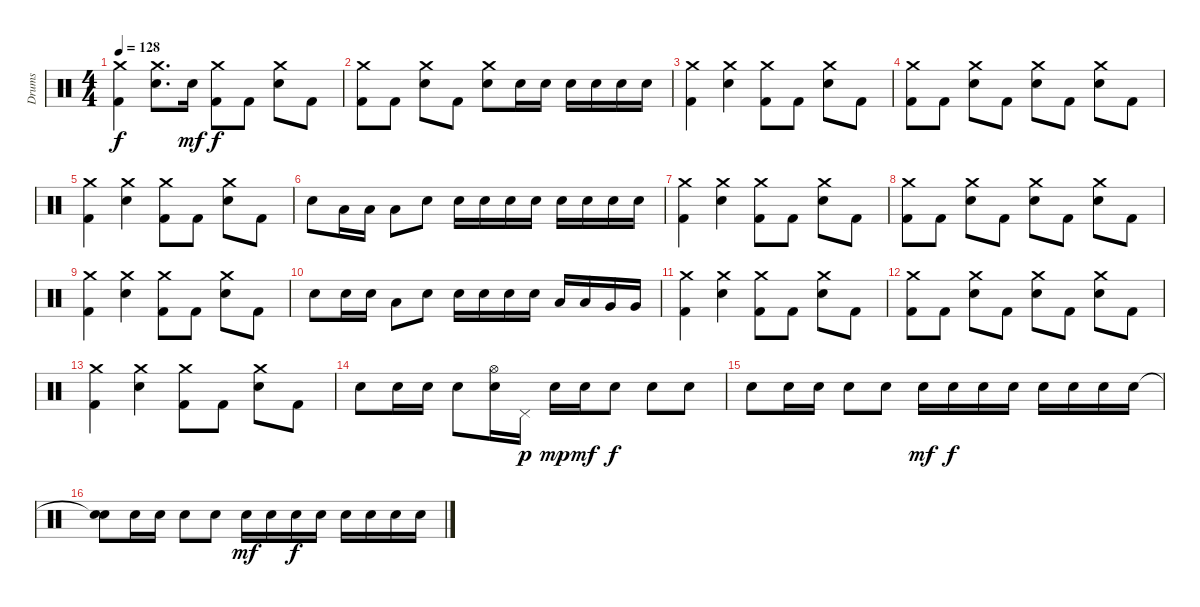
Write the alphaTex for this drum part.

\track ("Drums" "Drums") {instrument percussion}
\staff {score}
\articulation defaults
\ts (4 4)
\tempo 128
\clef neutral
\ks c
("Crash medium (hit)" "Kick (hit) 2").4{dy f} ("Crash medium (hit)" "Snare (hit) 2").8{d} "Snare (hit) 2".16{dy mf} ("Crash medium (hit)" "Kick (hit) 2").8{dy f} "Kick (hit) 2".8 ("Crash medium (hit)" "Snare (hit) 2").8 "Kick (hit) 2".8 |
("Crash medium (hit)" "Kick (hit) 2").8 "Kick (hit) 2".8 ("Crash medium (hit)" "Snare (hit) 2").8 "Kick (hit) 2".8 ("Crash medium (hit)" "Snare (hit) 2").8 "Snare (hit) 2".16 "Snare (hit) 2".16 "Snare (hit) 2".16 "Snare (hit) 2".16 "Snare (hit) 2".16 "Snare (hit) 2".16 |
("Crash medium (hit)" "Kick (hit) 2").4 ("Crash medium (hit)" "Snare (hit) 2").4 ("Crash medium (hit)" "Kick (hit) 2").8 "Kick (hit) 2".8 ("Crash medium (hit)" "Snare (hit) 2").8 "Kick (hit) 2".8 |
("Crash medium (hit)" "Kick (hit) 2").8 "Kick (hit) 2".8 ("Crash medium (hit)" "Snare (hit) 2").8 "Kick (hit) 2".8 ("Crash medium (hit)" "Snare (hit) 2").8 "Kick (hit) 2".8 ("Crash medium (hit)" "Snare (hit) 2").8 "Kick (hit) 2".8 |
("Crash medium (hit)" "Kick (hit) 2").4 ("Crash medium (hit)" "Snare (hit) 2").4 ("Crash medium (hit)" "Kick (hit) 2").8 "Kick (hit) 2".8 ("Crash medium (hit)" "Snare (hit) 2").8 "Kick (hit) 2".8 |
"Snare (hit) 2".8 "Low Tom (hit)".16 "Low Tom (hit)".16 "Low Tom (hit)".8 "Snare (hit) 2".8 "Snare (hit) 2".16 "Snare (hit) 2".16 "Snare (hit) 2".16 "Snare (hit) 2".16 "Snare (hit) 2".16 "Snare (hit) 2".16 "Snare (hit) 2".16 "Snare (hit) 2".16 |
("Crash medium (hit)" "Kick (hit) 2").4 ("Crash medium (hit)" "Snare (hit) 2").4 ("Crash medium (hit)" "Kick (hit) 2").8 "Kick (hit) 2".8 ("Crash medium (hit)" "Snare (hit) 2").8 "Kick (hit) 2".8 |
("Crash medium (hit)" "Kick (hit) 2").8 "Kick (hit) 2".8 ("Crash medium (hit)" "Snare (hit) 2").8 "Kick (hit) 2".8 ("Crash medium (hit)" "Snare (hit) 2").8 "Kick (hit) 2".8 ("Crash medium (hit)" "Snare (hit) 2").8 "Kick (hit) 2".8 |
("Crash medium (hit)" "Kick (hit) 2").4 ("Crash medium (hit)" "Snare (hit) 2").4 ("Crash medium (hit)" "Kick (hit) 2").8 "Kick (hit) 2".8 ("Crash medium (hit)" "Snare (hit) 2").8 "Kick (hit) 2".8 |
"Snare (hit) 2".8 "Snare (hit) 2".16 "Snare (hit) 2".16 "Low Tom (hit)".8 "Snare (hit) 2".8 "Snare (hit) 2".16 "Snare (hit) 2".16 "Snare (hit) 2".16 "Snare (hit) 2".16 "Low Tom (hit)".16 "Low Tom (hit)".16 "Very Low Tom (hit)".16 "Very Low Tom (hit)".16 |
("Crash medium (hit)" "Kick (hit) 2").4 ("Crash medium (hit)" "Snare (hit) 2").4 ("Crash medium (hit)" "Kick (hit) 2").8 "Kick (hit) 2".8 ("Crash medium (hit)" "Snare (hit) 2").8 "Kick (hit) 2".8 |
("Crash medium (hit)" "Kick (hit) 2").8 "Kick (hit) 2".8 ("Crash medium (hit)" "Snare (hit) 2").8 "Kick (hit) 2".8 ("Crash medium (hit)" "Snare (hit) 2").8 "Kick (hit) 2".8 ("Crash medium (hit)" "Snare (hit) 2").8 "Kick (hit) 2".8 |
("Crash medium (hit)" "Kick (hit) 2").4 ("Crash medium (hit)" "Snare (hit) 2").4 ("Crash medium (hit)" "Kick (hit) 2").8 "Kick (hit) 2".8 ("Crash medium (hit)" "Snare (hit) 2").8 "Kick (hit) 2".8 |
"Snare (hit) 2".8 "Snare (hit) 2".16 "Snare (hit) 2".16 "Snare (hit) 2".8 ("Snare (hit) 2" "Hi-Hat (open)").16 "Pedal Hi-Hat (hit)".16{dy p} "Snare (hit) 2".16{dy mp} "Snare (hit) 2".16{dy mf} "Snare (hit) 2".8{dy f} "Snare (hit) 2".8 "Snare (hit) 2".8 |
"Snare (hit) 2".8 "Snare (hit) 2".16 "Snare (hit) 2".16 "Snare (hit) 2".8 "Snare (hit) 2".8 "Snare (hit) 2".16{dy mf} "Snare (hit) 2".16{dy f} "Snare (hit) 2".16 "Snare (hit) 2".16 "Snare (hit) 2".16 "Snare (hit) 2".16 "Snare (hit) 2".16 "Snare (hit) 2".16 |
("Snare (hit)"{t} "Snare (hit) 2").8 "Snare (hit) 2".16 "Snare (hit) 2".16 "Snare (hit) 2".8 "Snare (hit) 2".8 "Snare (hit) 2".16{dy mf} "Snare (hit) 2".16 "Snare (hit) 2".16{dy f} "Snare (hit) 2".16 "Snare (hit) 2".16 "Snare (hit) 2".16 "Snare (hit) 2".16 "Snare (hit) 2".16
